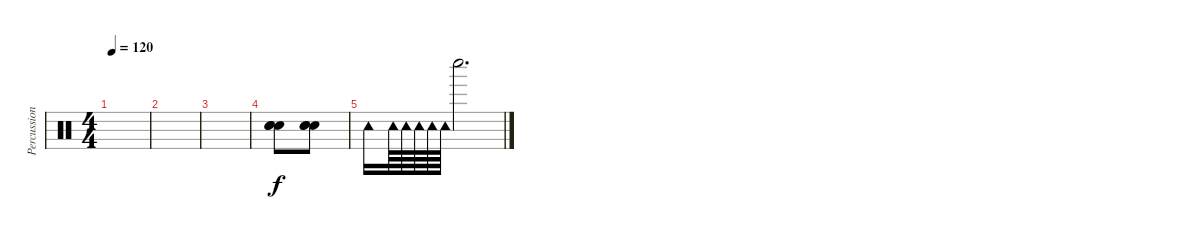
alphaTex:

\track ("Percussion" "Percussion") {instrument percussion}
\staff {score}
\articulation defaults
\ts (4 4)
\tempo 120
\clef neutral
\ks c
|
|
|
("Hand Clap (hit)" "Hand Clap (hit)" "Hand Clap (hit)").8 ("Hand Clap (hit)" "Hand Clap (hit)" "Hand Clap (hit)").8 |
"Tambourine (hit)".16 "Tambourine (hit)".64 "Tambourine (hit)".64 "Tambourine (hit)".64 "Tambourine (hit)".64 "Tambourine (hit)".64 "Whistle low (hit)".2{d}
